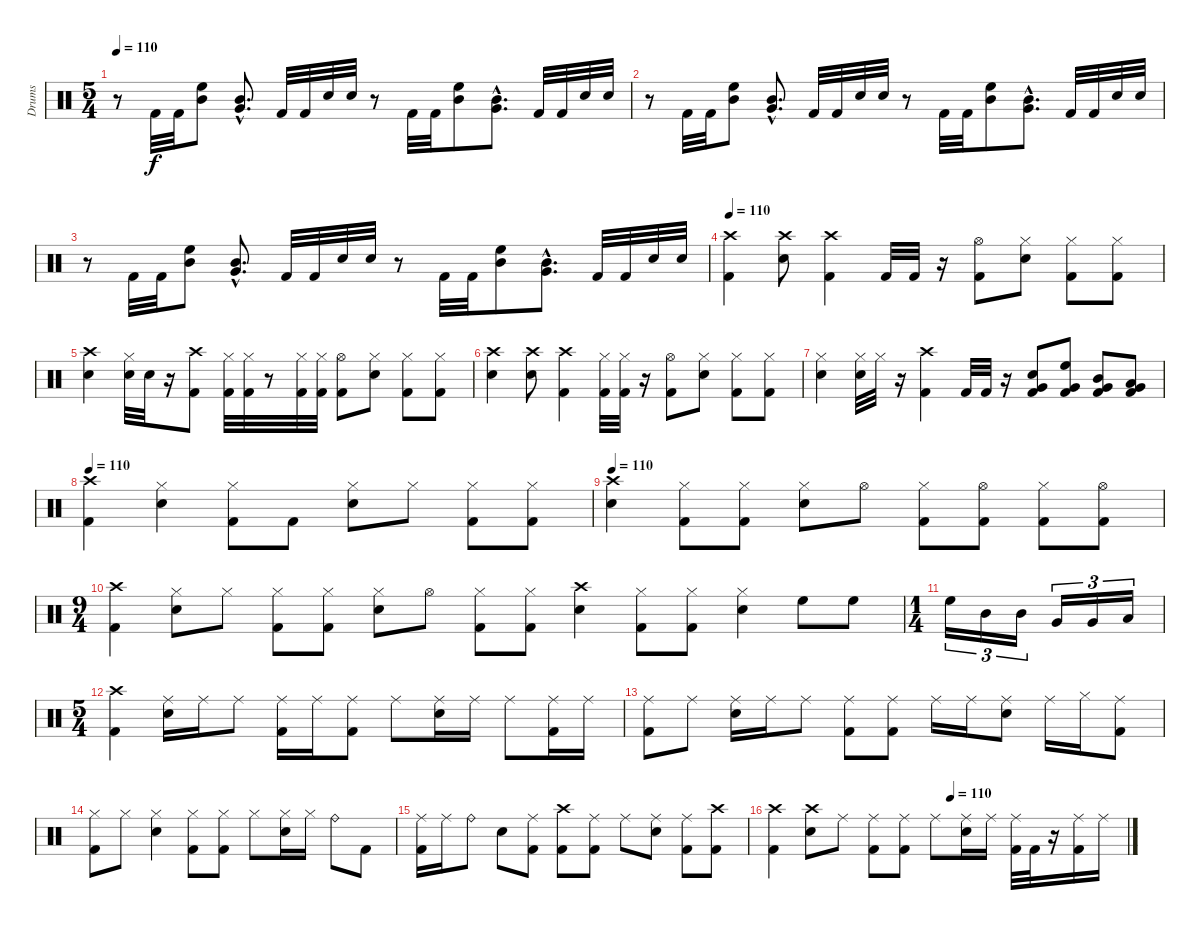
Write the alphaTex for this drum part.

\track ("Drums" "Drums") {instrument percussion}
\staff {score}
\articulation defaults
\ts (5 4)
\tempo 110
\clef neutral
\ks c
r.8{dy f} "Kick (hit) 2".32 "Kick (hit) 2".32 ("High Floor Tom (hit)" "Mid Tom (hit)").8 ("Mid Tom (hit)"{hac} "Very Low Tom (hit)"{hac}).8{d} "Kick (hit) 2".32 "Kick (hit) 2".32 "Snare (hit) 2".32 "Snare (hit) 2".32 r.8 "Kick (hit) 2".32 "Kick (hit) 2".32 ("High Floor Tom (hit)" "Mid Tom (hit)").8 ("Mid Tom (hit)"{hac} "Very Low Tom (hit)"{hac}).8{d} "Kick (hit) 2".32 "Kick (hit) 2".32 "Snare (hit) 2".32 "Snare (hit) 2".32 |
r.8 "Kick (hit) 2".32 "Kick (hit) 2".32 ("High Floor Tom (hit)" "Mid Tom (hit)").8 ("Mid Tom (hit)"{hac} "Very Low Tom (hit)"{hac}).8{d} "Kick (hit) 2".32 "Kick (hit) 2".32 "Snare (hit) 2".32 "Snare (hit) 2".32 r.8 "Kick (hit) 2".32 "Kick (hit) 2".32 ("High Floor Tom (hit)" "Mid Tom (hit)").8 ("Mid Tom (hit)"{hac} "Very Low Tom (hit)"{hac}).8{d} "Kick (hit) 2".32 "Kick (hit) 2".32 "Snare (hit) 2".32 "Snare (hit) 2".32 |
r.8 "Kick (hit) 2".32 "Kick (hit) 2".32 ("High Floor Tom (hit)" "Mid Tom (hit)").8 ("Mid Tom (hit)"{hac} "Very Low Tom (hit)"{hac}).8{d} "Kick (hit) 2".32 "Kick (hit) 2".32 "Snare (hit) 2".32 "Snare (hit) 2".32 r.8 "Kick (hit) 2".32 "Kick (hit) 2".32 ("High Floor Tom (hit)" "Mid Tom (hit)").8 ("Mid Tom (hit)"{hac} "Very Low Tom (hit)"{hac}).8{d} "Kick (hit) 2".32 "Kick (hit) 2".32 "Snare (hit) 2".32 "Snare (hit) 2".32 |
\tempo 110
("Crash high (hit)" "Kick (hit) 2").4 ("Crash high (hit)" "Snare (hit) 2").8 ("Crash high (hit)" "Kick (hit) 2").4 "Kick (hit) 2".32 "Kick (hit) 2".32 r.16 ("Hi-Hat (open)" "Kick (hit) 2").8 ("Hi-Hat (closed)" "Snare (hit) 2").8 ("Hi-Hat (closed)" "Kick (hit) 2").8 ("Hi-Hat (closed)" "Kick (hit) 2").8 |
("Crash high (hit)" "Snare (hit) 2").4 ("Hi-Hat (closed)" "Snare (hit) 2").32 "Snare (hit) 2".32 r.16 ("Crash high (hit)" "Kick (hit) 2").8 ("Hi-Hat (closed)" "Kick (hit) 2").32 ("Hi-Hat (closed)" "Kick (hit) 2").32 r.8 ("Hi-Hat (closed)" "Kick (hit) 2").32 ("Hi-Hat (closed)" "Kick (hit) 2").32 ("Hi-Hat (open)" "Kick (hit) 2").8 ("Hi-Hat (closed)" "Snare (hit) 2").8 ("Hi-Hat (closed)" "Kick (hit) 2").8 ("Hi-Hat (closed)" "Kick (hit) 2").8 |
("Crash high (hit)" "Snare (hit) 2").4 ("Crash high (hit)" "Snare (hit) 2").8 ("Kick (hit) 2" "Crash high (hit)").4 ("Hi-Hat (closed)" "Kick (hit) 2").32 ("Hi-Hat (closed)" "Kick (hit) 2").32 r.16 ("Hi-Hat (open)" "Kick (hit) 2").8 ("Hi-Hat (closed)" "Snare (hit) 2").8 ("Hi-Hat (closed)" "Kick (hit) 2").8 ("Hi-Hat (closed)" "Kick (hit) 2").8 |
("Hi-Hat (closed)" "Snare (hit) 2").4 ("Hi-Hat (closed)" "Snare (hit) 2").32 "Hi-Hat (closed)".32 r.16 ("Crash high (hit)" "Kick (hit) 2").4 "Kick (hit) 2".32 "Kick (hit) 2".32 r.16 ("Snare (hit) 2" "Very Low Tom (hit)" "Kick (hit) 2").8 ("High Floor Tom (hit)" "Very Low Tom (hit)" "Kick (hit) 2").8 ("Mid Tom (hit)" "Very Low Tom (hit)" "Kick (hit) 2").8 ("Very Low Tom (hit)" "Low Floor Tom (hit)" "Kick (hit) 2").8 |
\tempo 110
("Crash high (hit)" "Kick (hit) 2").4 ("Hi-Hat (closed)" "Snare (hit) 2").4 ("Hi-Hat (closed)" "Kick (hit) 2").8 "Kick (hit) 2".8 ("Hi-Hat (closed)" "Snare (hit) 2").8 "Hi-Hat (closed)".8 ("Hi-Hat (closed)" "Kick (hit) 2").8 ("Hi-Hat (closed)" "Kick (hit) 2").8 |
\tempo 110
("Crash high (hit)" "Snare (hit) 2").4 ("Hi-Hat (closed)" "Kick (hit) 2").8 ("Hi-Hat (closed)" "Kick (hit) 2").8 ("Hi-Hat (closed)" "Snare (hit) 2").8 "Hi-Hat (open)".8 ("Hi-Hat (closed)" "Kick (hit) 2").8 ("Hi-Hat (open)" "Kick (hit) 2").8 ("Hi-Hat (closed)" "Kick (hit) 2").8 ("Hi-Hat (open)" "Kick (hit) 2").8 |
\ts (9 4)
("Crash high (hit)" "Kick (hit) 2").4 ("Hi-Hat (closed)" "Snare (hit) 2").8 "Hi-Hat (closed)".8 ("Hi-Hat (closed)" "Kick (hit) 2").8 ("Hi-Hat (closed)" "Kick (hit) 2").8 ("Hi-Hat (closed)" "Snare (hit) 2").8 "Hi-Hat (open)".8 ("Hi-Hat (closed)" "Kick (hit) 2").8 ("Hi-Hat (closed)" "Kick (hit) 2").8 ("Crash high (hit)" "Snare (hit) 2").4 ("Hi-Hat (closed)" "Kick (hit) 2").8 ("Hi-Hat (closed)" "Kick (hit) 2").8 ("Hi-Hat (closed)" "Snare (hit) 2").4 "High Floor Tom (hit)".8 "High Floor Tom (hit)".8 |
\ts (1 4)
"High Floor Tom (hit)".16{tu (3 2)} "Mid Tom (hit)".16{tu (3 2)} "Mid Tom (hit)".16{tu (3 2)} "Very Low Tom (hit)".16{tu (3 2)} "Very Low Tom (hit)".16{tu (3 2)} "Low Floor Tom (hit)".16{tu (3 2)} |
\ts (5 4)
("Crash high (hit)" "Kick (hit) 2").4 ("Ride (middle)" "Snare (hit) 2").16 "Ride (middle)".16 "Ride (middle)".8 ("Ride (middle)" "Kick (hit) 2").16 "Ride (middle)".16 ("Ride (middle)" "Kick (hit) 2").8 "Ride (middle)".8 ("Ride (middle)" "Snare (hit) 2").16 "Ride (middle)".16 "Ride (middle)".8 ("Ride (middle)" "Kick (hit) 2").16 "Ride (middle)".16 |
("Ride (middle)" "Kick (hit) 2").8 "Ride (middle)".8 ("Ride (middle)" "Snare (hit) 2").16 "Ride (middle)".16 "Ride (middle)".8 ("Ride (middle)" "Kick (hit) 2").8 ("Ride (middle)" "Kick (hit) 2").8 "Ride (middle)".16 "Ride (middle)".16 ("Ride (middle)" "Snare (hit) 2").8 "Ride (middle)".16 "Hi-Hat (closed)".16 ("Ride (middle)" "Kick (hit) 2").8 |
("Hi-Hat (closed)" "Kick (hit) 2").8 "Hi-Hat (closed)".8 ("Hi-Hat (closed)" "Snare (hit) 2").4 ("Hi-Hat (closed)" "Kick (hit) 2").8 ("Hi-Hat (closed)" "Kick (hit) 2").8 "Hi-Hat (closed)".8 ("Hi-Hat (closed)" "Snare (hit) 2").16 "Hi-Hat (closed)".16 "Ride (bell)".8 "Kick (hit) 2".8 |
("Ride (middle)" "Kick (hit) 2").16 "Ride (middle)".16 "Ride (bell)".8 "Snare (hit) 2".8 ("Ride (middle)" "Kick (hit) 2").8 ("Crash high (hit)" "Kick (hit) 2").8 ("Ride (middle)" "Kick (hit) 2").8 "Ride (middle)".8 ("Ride (middle)" "Snare (hit) 2").8 ("Ride (middle)" "Kick (hit) 2").8 ("Crash high (hit)" "Kick (hit) 2").8 |
\tempo (110 0.5)
("Crash high (hit)" "Kick (hit) 2").4 ("Crash high (hit)" "Snare (hit) 2").8 "Ride (middle)".8 ("Ride (middle)" "Kick (hit) 2").8 ("Ride (middle)" "Kick (hit) 2").8 "Ride (middle)".8 ("Ride (middle)" "Snare (hit) 2").16 "Ride (middle)".16 ("Ride (middle)" "Kick (hit) 2").32 "Kick (hit) 2".32 r.16 ("Ride (middle)" "Kick (hit) 2").16 "Ride (middle)".16
